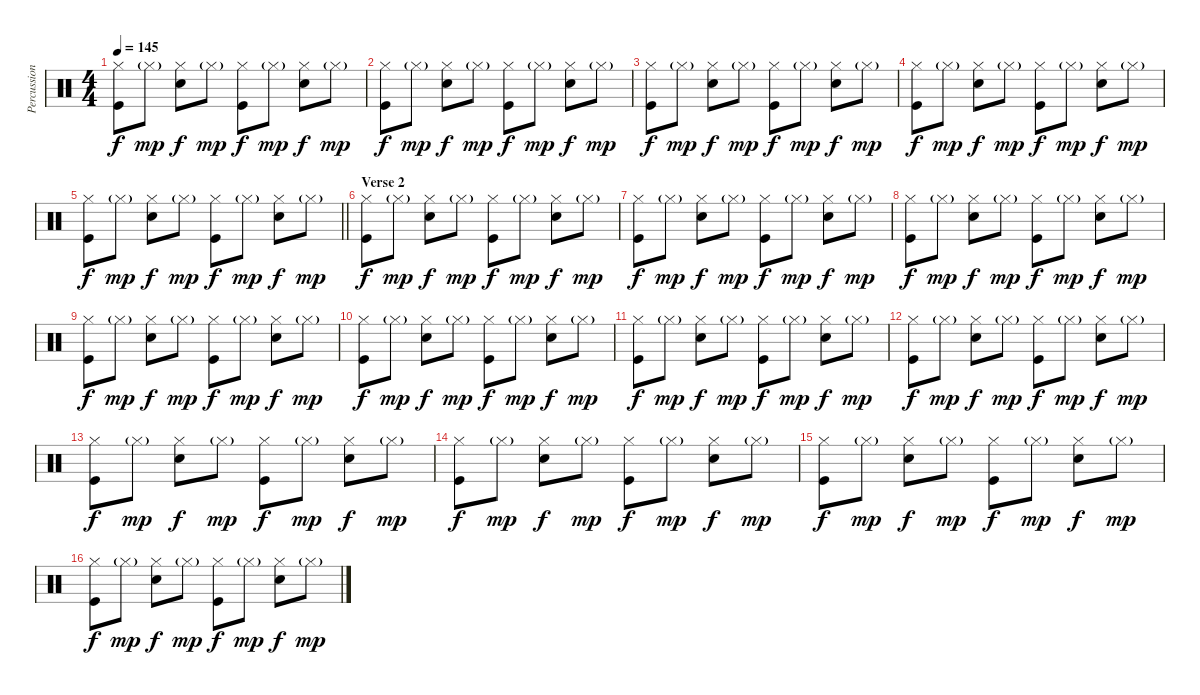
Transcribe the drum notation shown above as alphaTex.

\track ("Percussion" "Percussion") {instrument percussion}
\staff {score}
\articulation defaults
\ts (4 4)
\tempo 145
\clef neutral
\ks c
("Hi-Hat (closed)" "Kick (hit)").8{dy f} "Hi-Hat (closed)"{g}.8{dy mp} ("Hi-Hat (closed)" "Snare (hit) 2").8{dy f} "Hi-Hat (closed)"{g}.8{dy mp} ("Hi-Hat (closed)" "Kick (hit)").8{dy f} "Hi-Hat (closed)"{g}.8{dy mp} ("Hi-Hat (closed)" "Snare (hit) 2").8{dy f} "Hi-Hat (closed)"{g}.8{dy mp} |
("Hi-Hat (closed)" "Kick (hit)").8{dy f} "Hi-Hat (closed)"{g}.8{dy mp} ("Hi-Hat (closed)" "Snare (hit) 2").8{dy f} "Hi-Hat (closed)"{g}.8{dy mp} ("Hi-Hat (closed)" "Kick (hit)").8{dy f} "Hi-Hat (closed)"{g}.8{dy mp} ("Hi-Hat (closed)" "Snare (hit) 2").8{dy f} "Hi-Hat (closed)"{g}.8{dy mp} |
("Hi-Hat (closed)" "Kick (hit)").8{dy f} "Hi-Hat (closed)"{g}.8{dy mp} ("Hi-Hat (closed)" "Snare (hit) 2").8{dy f} "Hi-Hat (closed)"{g}.8{dy mp} ("Hi-Hat (closed)" "Kick (hit)").8{dy f} "Hi-Hat (closed)"{g}.8{dy mp} ("Hi-Hat (closed)" "Snare (hit) 2").8{dy f} "Hi-Hat (closed)"{g}.8{dy mp} |
("Hi-Hat (closed)" "Kick (hit)").8{dy f} "Hi-Hat (closed)"{g}.8{dy mp} ("Hi-Hat (closed)" "Snare (hit) 2").8{dy f} "Hi-Hat (closed)"{g}.8{dy mp} ("Hi-Hat (closed)" "Kick (hit)").8{dy f} "Hi-Hat (closed)"{g}.8{dy mp} ("Hi-Hat (closed)" "Snare (hit) 2").8{dy f} "Hi-Hat (closed)"{g}.8{dy mp} |
\barLineRight lightlight
("Hi-Hat (closed)" "Kick (hit)").8{dy f} "Hi-Hat (closed)"{g}.8{dy mp} ("Hi-Hat (closed)" "Snare (hit) 2").8{dy f} "Hi-Hat (closed)"{g}.8{dy mp} ("Hi-Hat (closed)" "Kick (hit)").8{dy f} "Hi-Hat (closed)"{g}.8{dy mp} ("Hi-Hat (closed)" "Snare (hit) 2").8{dy f} "Hi-Hat (closed)"{g}.8{dy mp} |
\section ("" "Verse 2")
("Hi-Hat (closed)" "Kick (hit)").8{dy f} "Hi-Hat (closed)"{g}.8{dy mp} ("Hi-Hat (closed)" "Snare (hit) 2").8{dy f} "Hi-Hat (closed)"{g}.8{dy mp} ("Hi-Hat (closed)" "Kick (hit)").8{dy f} "Hi-Hat (closed)"{g}.8{dy mp} ("Hi-Hat (closed)" "Snare (hit) 2").8{dy f} "Hi-Hat (closed)"{g}.8{dy mp} |
("Hi-Hat (closed)" "Kick (hit)").8{dy f} "Hi-Hat (closed)"{g}.8{dy mp} ("Hi-Hat (closed)" "Snare (hit) 2").8{dy f} "Hi-Hat (closed)"{g}.8{dy mp} ("Hi-Hat (closed)" "Kick (hit)").8{dy f} "Hi-Hat (closed)"{g}.8{dy mp} ("Hi-Hat (closed)" "Snare (hit) 2").8{dy f} "Hi-Hat (closed)"{g}.8{dy mp} |
("Hi-Hat (closed)" "Kick (hit)").8{dy f} "Hi-Hat (closed)"{g}.8{dy mp} ("Hi-Hat (closed)" "Snare (hit) 2").8{dy f} "Hi-Hat (closed)"{g}.8{dy mp} ("Hi-Hat (closed)" "Kick (hit)").8{dy f} "Hi-Hat (closed)"{g}.8{dy mp} ("Hi-Hat (closed)" "Snare (hit) 2").8{dy f} "Hi-Hat (closed)"{g}.8{dy mp} |
("Hi-Hat (closed)" "Kick (hit)").8{dy f} "Hi-Hat (closed)"{g}.8{dy mp} ("Hi-Hat (closed)" "Snare (hit) 2").8{dy f} "Hi-Hat (closed)"{g}.8{dy mp} ("Hi-Hat (closed)" "Kick (hit)").8{dy f} "Hi-Hat (closed)"{g}.8{dy mp} ("Hi-Hat (closed)" "Snare (hit) 2").8{dy f} "Hi-Hat (closed)"{g}.8{dy mp} |
("Hi-Hat (closed)" "Kick (hit)").8{dy f} "Hi-Hat (closed)"{g}.8{dy mp} ("Hi-Hat (closed)" "Snare (hit) 2").8{dy f} "Hi-Hat (closed)"{g}.8{dy mp} ("Hi-Hat (closed)" "Kick (hit)").8{dy f} "Hi-Hat (closed)"{g}.8{dy mp} ("Hi-Hat (closed)" "Snare (hit) 2").8{dy f} "Hi-Hat (closed)"{g}.8{dy mp} |
("Hi-Hat (closed)" "Kick (hit)").8{dy f} "Hi-Hat (closed)"{g}.8{dy mp} ("Hi-Hat (closed)" "Snare (hit) 2").8{dy f} "Hi-Hat (closed)"{g}.8{dy mp} ("Hi-Hat (closed)" "Kick (hit)").8{dy f} "Hi-Hat (closed)"{g}.8{dy mp} ("Hi-Hat (closed)" "Snare (hit) 2").8{dy f} "Hi-Hat (closed)"{g}.8{dy mp} |
("Hi-Hat (closed)" "Kick (hit)").8{dy f} "Hi-Hat (closed)"{g}.8{dy mp} ("Hi-Hat (closed)" "Snare (hit) 2").8{dy f} "Hi-Hat (closed)"{g}.8{dy mp} ("Hi-Hat (closed)" "Kick (hit)").8{dy f} "Hi-Hat (closed)"{g}.8{dy mp} ("Hi-Hat (closed)" "Snare (hit) 2").8{dy f} "Hi-Hat (closed)"{g}.8{dy mp} |
("Hi-Hat (closed)" "Kick (hit)").8{dy f} "Hi-Hat (closed)"{g}.8{dy mp} ("Hi-Hat (closed)" "Snare (hit) 2").8{dy f} "Hi-Hat (closed)"{g}.8{dy mp} ("Hi-Hat (closed)" "Kick (hit)").8{dy f} "Hi-Hat (closed)"{g}.8{dy mp} ("Hi-Hat (closed)" "Snare (hit) 2").8{dy f} "Hi-Hat (closed)"{g}.8{dy mp} |
("Hi-Hat (closed)" "Kick (hit)").8{dy f} "Hi-Hat (closed)"{g}.8{dy mp} ("Hi-Hat (closed)" "Snare (hit) 2").8{dy f} "Hi-Hat (closed)"{g}.8{dy mp} ("Hi-Hat (closed)" "Kick (hit)").8{dy f} "Hi-Hat (closed)"{g}.8{dy mp} ("Hi-Hat (closed)" "Snare (hit) 2").8{dy f} "Hi-Hat (closed)"{g}.8{dy mp} |
("Hi-Hat (closed)" "Kick (hit)").8{dy f} "Hi-Hat (closed)"{g}.8{dy mp} ("Hi-Hat (closed)" "Snare (hit) 2").8{dy f} "Hi-Hat (closed)"{g}.8{dy mp} ("Hi-Hat (closed)" "Kick (hit)").8{dy f} "Hi-Hat (closed)"{g}.8{dy mp} ("Hi-Hat (closed)" "Snare (hit) 2").8{dy f} "Hi-Hat (closed)"{g}.8{dy mp} |
("Hi-Hat (closed)" "Kick (hit)").8{dy f} "Hi-Hat (closed)"{g}.8{dy mp} ("Hi-Hat (closed)" "Snare (hit) 2").8{dy f} "Hi-Hat (closed)"{g}.8{dy mp} ("Hi-Hat (closed)" "Kick (hit)").8{dy f} "Hi-Hat (closed)"{g}.8{dy mp} ("Hi-Hat (closed)" "Snare (hit) 2").8{dy f} "Hi-Hat (closed)"{g}.8{dy mp}
